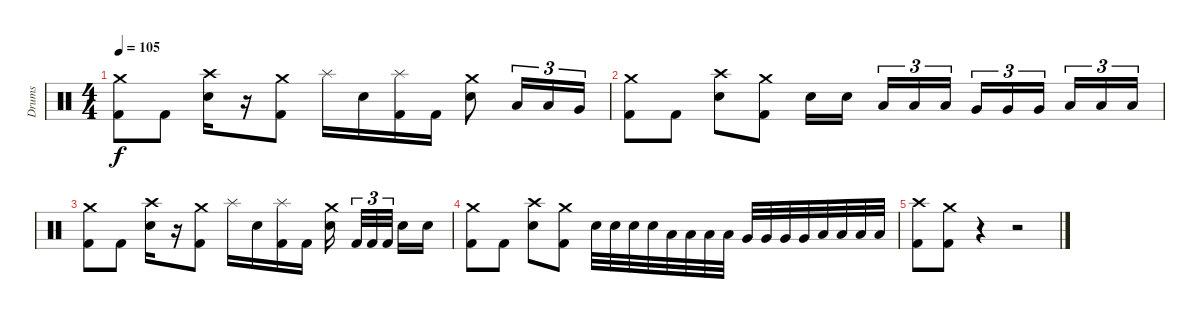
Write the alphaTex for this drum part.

\track ("Drums" "Drums") {instrument percussion}
\staff {score}
\articulation defaults
\ts (4 4)
\tempo 105
\clef neutral
\ks c
("Crash medium (hit)" "Kick (hit) 2").8{dy f} "Kick (hit) 2".8 ("Crash high (hit)" "Electric Snare (hit)").16 r.16 ("Crash medium (hit)" "Kick (hit) 2").8 "Splash (hit)".16 "Electric Snare (hit)".16 ("Splash (hit)" "Kick (hit) 2").16 "Kick (hit) 2".16 ("Crash medium (hit)" "Electric Snare (hit)").8 "Low Tom (hit)".16{tu (3 2)} "Low Tom (hit)".16{tu (3 2)} "Very Low Tom (hit)".16{tu (3 2)} |
("Crash medium (hit)" "Kick (hit) 2").8 "Kick (hit) 2".8 ("Crash high (hit)" "Electric Snare (hit)").8 ("Crash medium (hit)" "Kick (hit) 2").8 "Electric Snare (hit)".16 "Electric Snare (hit)".16{beam splitsecondary} "Low Tom (hit)".16{tu (3 2)} "Low Tom (hit)".16{tu (3 2)} "Low Tom (hit)".16{tu (3 2)} "Very Low Tom (hit)".16{tu (3 2)} "Very Low Tom (hit)".16{tu (3 2)} "Very Low Tom (hit)".16{tu (3 2) beam splitsecondary} "Low Floor Tom (hit)".16{tu (3 2)} "Low Floor Tom (hit)".16{tu (3 2)} "Low Floor Tom (hit)".16{tu (3 2)} |
("Crash medium (hit)" "Kick (hit) 2").8 "Kick (hit) 2".8 ("Crash high (hit)" "Electric Snare (hit)").16 r.16 ("Crash medium (hit)" "Kick (hit) 2").8 "Splash (hit)".16 "Electric Snare (hit)".16 ("Splash (hit)" "Kick (hit) 2").16 "Kick (hit) 2".16 ("Crash medium (hit)" "Electric Snare (hit)").16{beam splitsecondary} "Kick (hit) 2".32{tu (3 2)} "Kick (hit) 2".32{tu (3 2)} "Kick (hit) 2".32{tu (3 2) beam splitsecondary} "Electric Snare (hit)".16 "Electric Snare (hit)".16 |
("Crash medium (hit)" "Kick (hit) 2").8 "Kick (hit) 2".8 ("Crash high (hit)" "Electric Snare (hit)").8 ("Crash medium (hit)" "Kick (hit) 2").8 "Electric Snare (hit)".32 "Electric Snare (hit)".32 "Electric Snare (hit)".32 "Electric Snare (hit)".32 "Low Tom (hit)".32 "Low Tom (hit)".32 "Low Tom (hit)".32 "Low Tom (hit)".32 "Very Low Tom (hit)".32 "Very Low Tom (hit)".32 "Very Low Tom (hit)".32 "Very Low Tom (hit)".32 "Low Floor Tom (hit)".32 "Low Floor Tom (hit)".32 "Low Floor Tom (hit)".32 "Low Floor Tom (hit)".32 |
("Crash high (hit)" "Kick (hit) 2").8 ("Crash medium (hit)" "Kick (hit) 2").8 r.4 r.2
